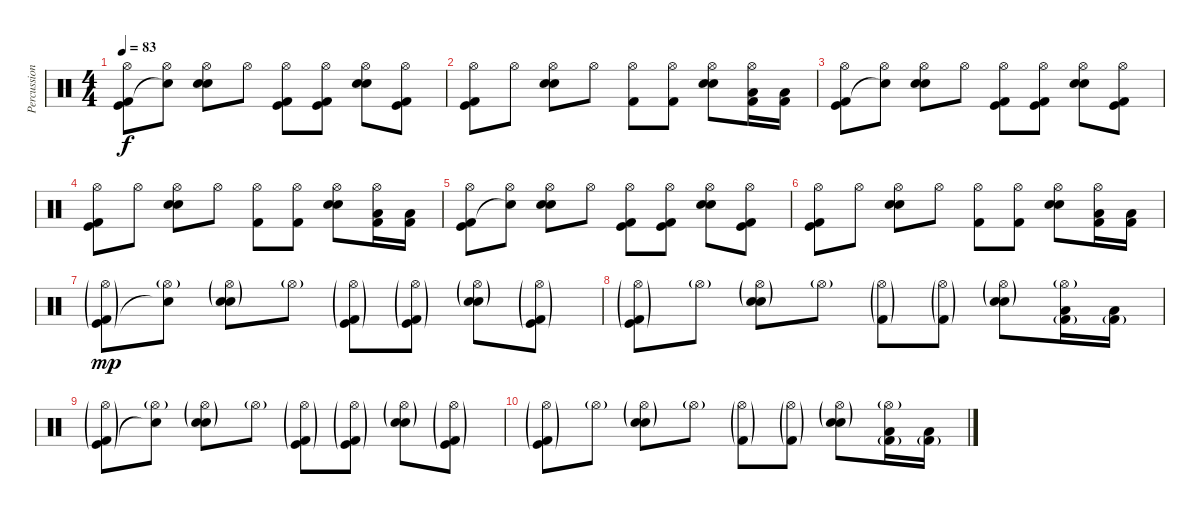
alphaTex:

\track ("Percussions" "Percussion") {instrument percussion}
\staff {score}
\articulation defaults
\ts (4 4)
\tempo 83
\clef neutral
\ks c
("Hi-Hat (open)" "Kick (hit) 2" "Kick (hit)").8{dy f} ("Hi-Hat (open)" "Electric Snare (hit)"{t}).8 ("Hi-Hat (open)" "Electric Snare (hit)" "Snare (hit) 2").8 "Hi-Hat (open)".8 ("Hi-Hat (open)" "Kick (hit) 2" "Kick (hit)").8 ("Hi-Hat (open)" "Kick (hit) 2" "Kick (hit)").8 ("Hi-Hat (open)" "Electric Snare (hit)" "Snare (hit) 2").8 ("Hi-Hat (open)" "Kick (hit) 2" "Kick (hit)").8 |
("Hi-Hat (open)" "Kick (hit) 2" "Kick (hit)").8 "Hi-Hat (open)".8 ("Hi-Hat (open)" "Electric Snare (hit)" "Snare (hit) 2").8 "Hi-Hat (open)".8 ("Hi-Hat (open)" "Kick (hit) 2").8 ("Hi-Hat (open)" "Kick (hit) 2").8 ("Hi-Hat (open)" "Electric Snare (hit)" "Snare (hit) 2").8 ("Hi-Hat (open)" "Low Tom (hit)" "Kick (hit) 2").16 ("Low Floor Tom (hit)" "Kick (hit) 2").16 |
("Hi-Hat (open)" "Kick (hit) 2" "Kick (hit)").8 ("Hi-Hat (open)" "Electric Snare (hit)"{t}).8 ("Hi-Hat (open)" "Electric Snare (hit)" "Snare (hit) 2").8 "Hi-Hat (open)".8 ("Hi-Hat (open)" "Kick (hit) 2" "Kick (hit)").8 ("Hi-Hat (open)" "Kick (hit) 2" "Kick (hit)").8 ("Hi-Hat (open)" "Electric Snare (hit)" "Snare (hit) 2").8 ("Hi-Hat (open)" "Kick (hit) 2" "Kick (hit)").8 |
("Hi-Hat (open)" "Kick (hit) 2" "Kick (hit)").8 "Hi-Hat (open)".8 ("Hi-Hat (open)" "Electric Snare (hit)" "Snare (hit) 2").8 "Hi-Hat (open)".8 ("Hi-Hat (open)" "Kick (hit) 2").8 ("Hi-Hat (open)" "Kick (hit) 2").8 ("Hi-Hat (open)" "Electric Snare (hit)" "Snare (hit) 2").8 ("Hi-Hat (open)" "Low Tom (hit)" "Kick (hit) 2").16 ("Low Floor Tom (hit)" "Kick (hit) 2").16 |
("Hi-Hat (open)" "Kick (hit) 2" "Kick (hit)").8 ("Hi-Hat (open)" "Electric Snare (hit)"{t}).8 ("Hi-Hat (open)" "Electric Snare (hit)" "Snare (hit) 2").8 "Hi-Hat (open)".8 ("Hi-Hat (open)" "Kick (hit) 2" "Kick (hit)").8 ("Hi-Hat (open)" "Kick (hit) 2" "Kick (hit)").8 ("Hi-Hat (open)" "Electric Snare (hit)" "Snare (hit) 2").8 ("Hi-Hat (open)" "Kick (hit) 2" "Kick (hit)").8 |
("Hi-Hat (open)" "Kick (hit) 2" "Kick (hit)").8 "Hi-Hat (open)".8 ("Hi-Hat (open)" "Electric Snare (hit)" "Snare (hit) 2").8 "Hi-Hat (open)".8 ("Hi-Hat (open)" "Kick (hit) 2").8 ("Hi-Hat (open)" "Kick (hit) 2").8 ("Hi-Hat (open)" "Electric Snare (hit)" "Snare (hit) 2").8 ("Hi-Hat (open)" "Low Tom (hit)" "Kick (hit) 2").16 ("Low Floor Tom (hit)" "Kick (hit) 2").16 |
("Hi-Hat (open)"{g} "Kick (hit) 2"{g} "Kick (hit)"{g}).8{dy mp volume 0} ("Hi-Hat (open)"{g} "Electric Snare (hit)"{t}).8 ("Hi-Hat (open)"{g} "Electric Snare (hit)"{g} "Snare (hit) 2"{g}).8 "Hi-Hat (open)"{g}.8 ("Hi-Hat (open)"{g} "Kick (hit) 2"{g} "Kick (hit)"{g}).8 ("Hi-Hat (open)"{g} "Kick (hit) 2"{g} "Kick (hit)"{g}).8 ("Hi-Hat (open)"{g} "Electric Snare (hit)"{g} "Snare (hit) 2"{g}).8 ("Hi-Hat (open)"{g} "Kick (hit) 2"{g} "Kick (hit)"{g}).8 |
("Hi-Hat (open)"{g} "Kick (hit) 2"{g} "Kick (hit)"{g}).8 "Hi-Hat (open)"{g}.8 ("Hi-Hat (open)"{g} "Electric Snare (hit)"{g} "Snare (hit) 2"{g}).8 "Hi-Hat (open)"{g}.8 ("Hi-Hat (open)"{g} "Kick (hit) 2"{g}).8 ("Hi-Hat (open)"{g} "Kick (hit) 2"{g}).8 ("Hi-Hat (open)"{g} "Electric Snare (hit)"{g} "Snare (hit) 2"{g}).8 ("Hi-Hat (open)"{g} "Low Tom (hit)" "Kick (hit) 2"{g}).16 ("Low Floor Tom (hit)" "Kick (hit) 2"{g}).16 |
("Hi-Hat (open)"{g} "Kick (hit) 2"{g} "Kick (hit)"{g}).8 ("Hi-Hat (open)"{g} "Electric Snare (hit)"{t}).8 ("Hi-Hat (open)"{g} "Electric Snare (hit)"{g} "Snare (hit) 2"{g}).8 "Hi-Hat (open)"{g}.8 ("Hi-Hat (open)"{g} "Kick (hit) 2"{g} "Kick (hit)"{g}).8 ("Hi-Hat (open)"{g} "Kick (hit) 2"{g} "Kick (hit)"{g}).8 ("Hi-Hat (open)"{g} "Electric Snare (hit)"{g} "Snare (hit) 2"{g}).8 ("Hi-Hat (open)"{g} "Kick (hit) 2"{g} "Kick (hit)"{g}).8 |
("Hi-Hat (open)"{g} "Kick (hit) 2"{g} "Kick (hit)"{g}).8 "Hi-Hat (open)"{g}.8 ("Hi-Hat (open)"{g} "Electric Snare (hit)"{g} "Snare (hit) 2"{g}).8 "Hi-Hat (open)"{g}.8 ("Hi-Hat (open)"{g} "Kick (hit) 2"{g}).8 ("Hi-Hat (open)"{g} "Kick (hit) 2"{g}).8 ("Hi-Hat (open)"{g} "Electric Snare (hit)"{g} "Snare (hit) 2"{g}).8 ("Hi-Hat (open)"{g} "Low Tom (hit)" "Kick (hit) 2"{g}).16 ("Low Floor Tom (hit)" "Kick (hit) 2"{g}).16
